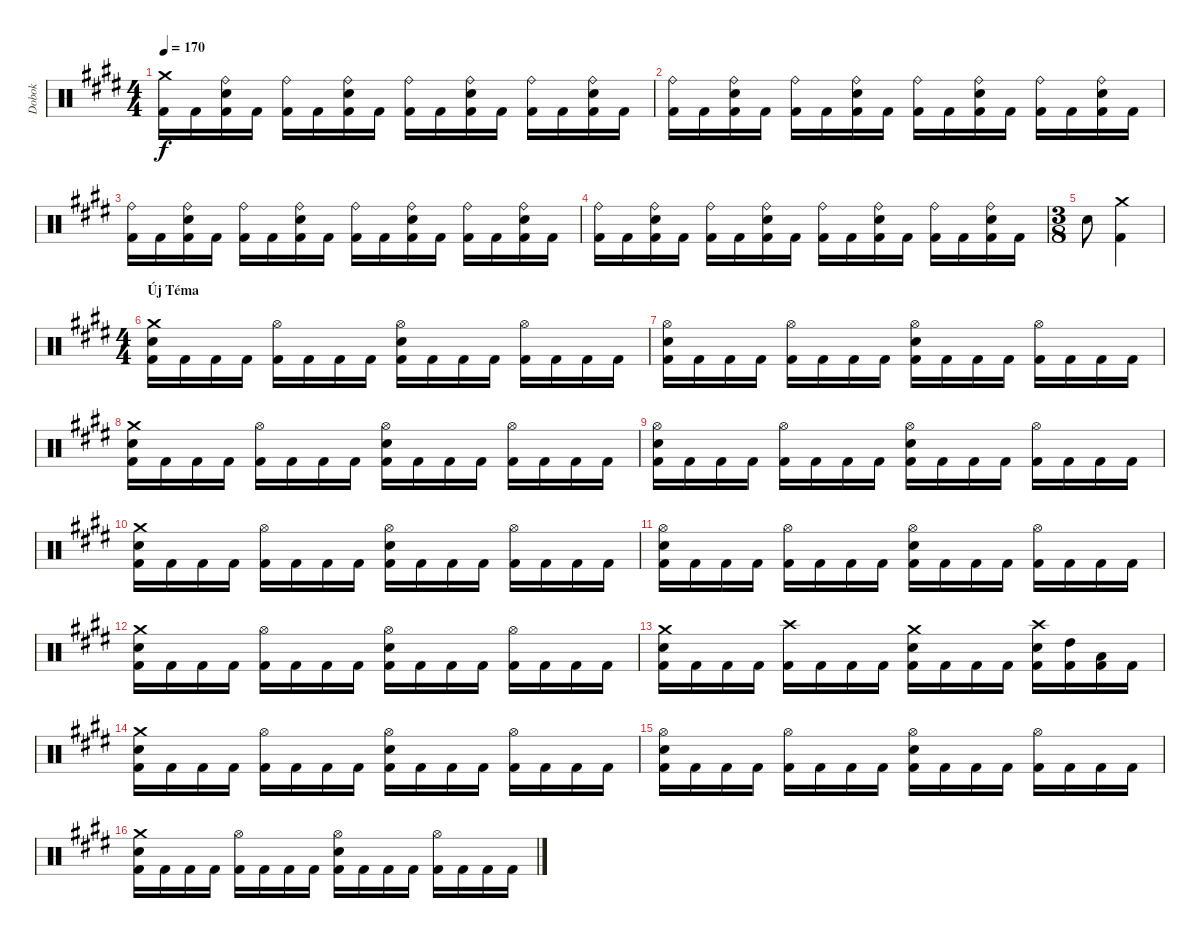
\track ("Dobok" "Dobok") {instrument percussion}
\staff {score}
\articulation defaults
\ts (4 4)
\tempo 170
\clef neutral
\ks c#minor
("Crash medium (hit)" "Kick (hit) 2").16{dy f} "Kick (hit) 2".16 ("Ride (bell)" "Snare (hit) 2" "Kick (hit) 2").16 "Kick (hit) 2".16 ("Ride (bell)" "Kick (hit) 2").16 "Kick (hit) 2".16 ("Ride (bell)" "Snare (hit) 2" "Kick (hit) 2").16 "Kick (hit) 2".16 ("Ride (bell)" "Kick (hit) 2").16 "Kick (hit) 2".16 ("Ride (bell)" "Snare (hit) 2" "Kick (hit) 2").16 "Kick (hit) 2".16 ("Ride (bell)" "Kick (hit) 2").16 "Kick (hit) 2".16 ("Ride (bell)" "Snare (hit) 2" "Kick (hit) 2").16 "Kick (hit) 2".16 |
("Ride (bell)" "Kick (hit) 2").16 "Kick (hit) 2".16 ("Ride (bell)" "Snare (hit) 2" "Kick (hit) 2").16 "Kick (hit) 2".16 ("Ride (bell)" "Kick (hit) 2").16 "Kick (hit) 2".16 ("Ride (bell)" "Snare (hit) 2" "Kick (hit) 2").16 "Kick (hit) 2".16 ("Ride (bell)" "Kick (hit) 2").16 "Kick (hit) 2".16 ("Ride (bell)" "Snare (hit) 2" "Kick (hit) 2").16 "Kick (hit) 2".16 ("Ride (bell)" "Kick (hit) 2").16 "Kick (hit) 2".16 ("Ride (bell)" "Snare (hit) 2" "Kick (hit) 2").16 "Kick (hit) 2".16 |
("Ride (bell)" "Kick (hit) 2").16 "Kick (hit) 2".16 ("Ride (bell)" "Snare (hit) 2" "Kick (hit) 2").16 "Kick (hit) 2".16 ("Ride (bell)" "Kick (hit) 2").16 "Kick (hit) 2".16 ("Ride (bell)" "Snare (hit) 2" "Kick (hit) 2").16 "Kick (hit) 2".16 ("Ride (bell)" "Kick (hit) 2").16 "Kick (hit) 2".16 ("Ride (bell)" "Snare (hit) 2" "Kick (hit) 2").16 "Kick (hit) 2".16 ("Ride (bell)" "Kick (hit) 2").16 "Kick (hit) 2".16 ("Ride (bell)" "Snare (hit) 2" "Kick (hit) 2").16 "Kick (hit) 2".16 |
("Ride (bell)" "Kick (hit) 2").16 "Kick (hit) 2".16 ("Ride (bell)" "Snare (hit) 2" "Kick (hit) 2").16 "Kick (hit) 2".16 ("Ride (bell)" "Kick (hit) 2").16 "Kick (hit) 2".16 ("Ride (bell)" "Snare (hit) 2" "Kick (hit) 2").16 "Kick (hit) 2".16 ("Ride (bell)" "Kick (hit) 2").16 "Kick (hit) 2".16 ("Ride (bell)" "Snare (hit) 2" "Kick (hit) 2").16 "Kick (hit) 2".16 ("Ride (bell)" "Kick (hit) 2").16 "Kick (hit) 2".16 ("Ride (bell)" "Snare (hit) 2" "Kick (hit) 2").16 "Kick (hit) 2".16 |
\ts (3 8)
"Snare (hit) 2".8 ("Crash medium (hit)" "Kick (hit) 2").4 |
\ts (4 4)
\section ("" "Új Téma")
("Crash medium (hit)" "Snare (hit) 2" "Kick (hit) 2").16 "Kick (hit) 2".16 "Kick (hit) 2".16 "Kick (hit) 2".16 ("Hi-Hat (open)" "Kick (hit) 2").16 "Kick (hit) 2".16 "Kick (hit) 2".16 "Kick (hit) 2".16 ("Hi-Hat (open)" "Snare (hit) 2" "Kick (hit) 2").16 "Kick (hit) 2".16 "Kick (hit) 2".16 "Kick (hit) 2".16 ("Hi-Hat (open)" "Kick (hit) 2").16 "Kick (hit) 2".16 "Kick (hit) 2".16 "Kick (hit) 2".16 |
("Hi-Hat (open)" "Snare (hit) 2" "Kick (hit) 2").16 "Kick (hit) 2".16 "Kick (hit) 2".16 "Kick (hit) 2".16 ("Hi-Hat (open)" "Kick (hit) 2").16 "Kick (hit) 2".16 "Kick (hit) 2".16 "Kick (hit) 2".16 ("Hi-Hat (open)" "Snare (hit) 2" "Kick (hit) 2").16 "Kick (hit) 2".16 "Kick (hit) 2".16 "Kick (hit) 2".16 ("Hi-Hat (open)" "Kick (hit) 2").16 "Kick (hit) 2".16 "Kick (hit) 2".16 "Kick (hit) 2".16 |
("Crash medium (hit)" "Snare (hit) 2" "Kick (hit) 2").16 "Kick (hit) 2".16 "Kick (hit) 2".16 "Kick (hit) 2".16 ("Hi-Hat (open)" "Kick (hit) 2").16 "Kick (hit) 2".16 "Kick (hit) 2".16 "Kick (hit) 2".16 ("Hi-Hat (open)" "Snare (hit) 2" "Kick (hit) 2").16 "Kick (hit) 2".16 "Kick (hit) 2".16 "Kick (hit) 2".16 ("Hi-Hat (open)" "Kick (hit) 2").16 "Kick (hit) 2".16 "Kick (hit) 2".16 "Kick (hit) 2".16 |
("Hi-Hat (open)" "Snare (hit) 2" "Kick (hit) 2").16 "Kick (hit) 2".16 "Kick (hit) 2".16 "Kick (hit) 2".16 ("Hi-Hat (open)" "Kick (hit) 2").16 "Kick (hit) 2".16 "Kick (hit) 2".16 "Kick (hit) 2".16 ("Hi-Hat (open)" "Snare (hit) 2" "Kick (hit) 2").16 "Kick (hit) 2".16 "Kick (hit) 2".16 "Kick (hit) 2".16 ("Hi-Hat (open)" "Kick (hit) 2").16 "Kick (hit) 2".16 "Kick (hit) 2".16 "Kick (hit) 2".16 |
("Crash medium (hit)" "Snare (hit) 2" "Kick (hit) 2").16 "Kick (hit) 2".16 "Kick (hit) 2".16 "Kick (hit) 2".16 ("Hi-Hat (open)" "Kick (hit) 2").16 "Kick (hit) 2".16 "Kick (hit) 2".16 "Kick (hit) 2".16 ("Hi-Hat (open)" "Snare (hit) 2" "Kick (hit) 2").16 "Kick (hit) 2".16 "Kick (hit) 2".16 "Kick (hit) 2".16 ("Hi-Hat (open)" "Kick (hit) 2").16 "Kick (hit) 2".16 "Kick (hit) 2".16 "Kick (hit) 2".16 |
("Hi-Hat (open)" "Snare (hit) 2" "Kick (hit) 2").16 "Kick (hit) 2".16 "Kick (hit) 2".16 "Kick (hit) 2".16 ("Hi-Hat (open)" "Kick (hit) 2").16 "Kick (hit) 2".16 "Kick (hit) 2".16 "Kick (hit) 2".16 ("Hi-Hat (open)" "Snare (hit) 2" "Kick (hit) 2").16 "Kick (hit) 2".16 "Kick (hit) 2".16 "Kick (hit) 2".16 ("Hi-Hat (open)" "Kick (hit) 2").16 "Kick (hit) 2".16 "Kick (hit) 2".16 "Kick (hit) 2".16 |
("Crash medium (hit)" "Snare (hit) 2" "Kick (hit) 2").16 "Kick (hit) 2".16 "Kick (hit) 2".16 "Kick (hit) 2".16 ("Hi-Hat (open)" "Kick (hit) 2").16 "Kick (hit) 2".16 "Kick (hit) 2".16 "Kick (hit) 2".16 ("Hi-Hat (open)" "Snare (hit) 2" "Kick (hit) 2").16 "Kick (hit) 2".16 "Kick (hit) 2".16 "Kick (hit) 2".16 ("Hi-Hat (open)" "Kick (hit) 2").16 "Kick (hit) 2".16 "Kick (hit) 2".16 "Kick (hit) 2".16 |
("Crash medium (hit)" "Snare (hit) 2" "Kick (hit) 2").16 "Kick (hit) 2".16 "Kick (hit) 2".16 "Kick (hit) 2".16 ("Crash high (hit)" "Kick (hit) 2").16 "Kick (hit) 2".16 "Kick (hit) 2".16 "Kick (hit) 2".16 ("Crash medium (hit)" "Snare (hit) 2" "Kick (hit) 2").16 "Kick (hit) 2".16 "Kick (hit) 2".16 "Kick (hit) 2".16 ("Crash high (hit)" "Snare (hit) 2" "Kick (hit) 2").16 ("High Tom (hit)" "Kick (hit) 2").16 ("Low Tom (hit)" "Kick (hit) 2").16 "Kick (hit) 2".16 |
("Crash medium (hit)" "Snare (hit) 2" "Kick (hit) 2").16 "Kick (hit) 2".16 "Kick (hit) 2".16 "Kick (hit) 2".16 ("Hi-Hat (open)" "Kick (hit) 2").16 "Kick (hit) 2".16 "Kick (hit) 2".16 "Kick (hit) 2".16 ("Hi-Hat (open)" "Snare (hit) 2" "Kick (hit) 2").16 "Kick (hit) 2".16 "Kick (hit) 2".16 "Kick (hit) 2".16 ("Hi-Hat (open)" "Kick (hit) 2").16 "Kick (hit) 2".16 "Kick (hit) 2".16 "Kick (hit) 2".16 |
("Hi-Hat (open)" "Snare (hit) 2" "Kick (hit) 2").16 "Kick (hit) 2".16 "Kick (hit) 2".16 "Kick (hit) 2".16 ("Hi-Hat (open)" "Kick (hit) 2").16 "Kick (hit) 2".16 "Kick (hit) 2".16 "Kick (hit) 2".16 ("Hi-Hat (open)" "Snare (hit) 2" "Kick (hit) 2").16 "Kick (hit) 2".16 "Kick (hit) 2".16 "Kick (hit) 2".16 ("Hi-Hat (open)" "Kick (hit) 2").16 "Kick (hit) 2".16 "Kick (hit) 2".16 "Kick (hit) 2".16 |
("Crash medium (hit)" "Snare (hit) 2" "Kick (hit) 2").16 "Kick (hit) 2".16 "Kick (hit) 2".16 "Kick (hit) 2".16 ("Hi-Hat (open)" "Kick (hit) 2").16 "Kick (hit) 2".16 "Kick (hit) 2".16 "Kick (hit) 2".16 ("Hi-Hat (open)" "Snare (hit) 2" "Kick (hit) 2").16 "Kick (hit) 2".16 "Kick (hit) 2".16 "Kick (hit) 2".16 ("Hi-Hat (open)" "Kick (hit) 2").16 "Kick (hit) 2".16 "Kick (hit) 2".16 "Kick (hit) 2".16
